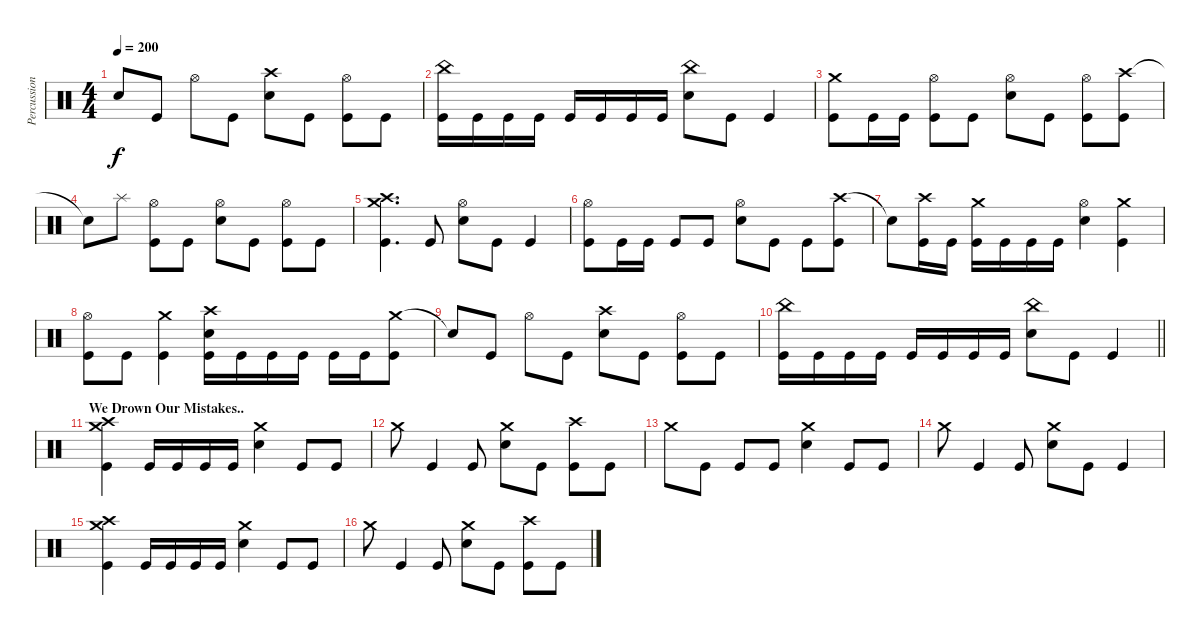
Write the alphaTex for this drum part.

\track ("Percussion" "Percussion") {instrument percussion}
\staff {score}
\articulation defaults
\ts (4 4)
\tempo 200
\clef neutral
\ks c "Snare (hit)"{t}.8{dy f} "Kick (hit)".8 "Hi-Hat (open)".8 "Kick (hit)".8
("Crash high (hit)" "Snare (hit) 2").8 "Kick (hit)".8 ("Hi-Hat (open)" "Kick (hit)").8 "Kick (hit)".8 |
("China (hit)" "Kick (hit)").16 "Kick (hit)".16 "Kick (hit)".16 "Kick (hit)".16 "Kick (hit)".16 "Kick (hit)".16 "Kick (hit)".16 "Kick (hit)".16 ("China (hit)" "Snare (hit) 2").8 "Kick (hit)".8 "Kick (hit)".4 |
("Crash medium (hit)" "Kick (hit)").8 "Kick (hit)".16 "Kick (hit)".16 ("Hi-Hat (open)" "Kick (hit)").8 "Kick (hit)".8 ("Hi-Hat (open)" "Snare (hit) 2").8 "Kick (hit)".8 ("Hi-Hat (open)" "Kick (hit)").8 ("Crash high (hit)" "Kick (hit)").8 |
"Snare (hit)"{t}.8 "Splash (hit)".8 ("Hi-Hat (open)" "Kick (hit)").8 "Kick (hit)".8 ("Hi-Hat (open)" "Snare (hit) 2").8 "Kick (hit)".8 ("Hi-Hat (open)" "Kick (hit)").8 "Kick (hit)".8 |
("Crash medium (hit)" "Crash high (hit)" "Kick (hit)").4{d} "Kick (hit)".8 ("Hi-Hat (open)" "Snare (hit) 2").8 "Kick (hit)".8 "Kick (hit)".4 |
("Hi-Hat (open)" "Kick (hit)").8 "Kick (hit)".16 "Kick (hit)".16 "Kick (hit)".8 "Kick (hit)".8 ("Hi-Hat (open)" "Snare (hit) 2").8 "Kick (hit)".8 "Kick (hit)".8 ("Crash high (hit)" "Kick (hit)").8 |
"Snare (hit)"{t}.8 ("Crash high (hit)" "Kick (hit)").16 "Kick (hit)".16 ("Crash medium (hit)" "Kick (hit)").16 "Kick (hit)".16 "Kick (hit)".16 "Kick (hit)".16 ("Hi-Hat (open)" "Snare (hit) 2").4 ("Crash medium (hit)" "Kick (hit)").4 |
("Hi-Hat (open)" "Kick (hit)").8 "Kick (hit)".8 ("Crash medium (hit)" "Kick (hit)").4 ("Crash high (hit)" "Snare (hit) 2" "Kick (hit)").16 "Kick (hit)".16 "Kick (hit)".16 "Kick (hit)".16 "Kick (hit)".16 "Kick (hit)".16 ("Crash medium (hit)" "Kick (hit)").8 |
"Snare (hit)"{t}.8 "Kick (hit)".8 "Hi-Hat (open)".8 "Kick (hit)".8 ("Crash high (hit)" "Snare (hit) 2").8 "Kick (hit)".8 ("Hi-Hat (open)" "Kick (hit)").8 "Kick (hit)".8 |
\barLineRight lightlight
("China (hit)" "Kick (hit)").16 "Kick (hit)".16 "Kick (hit)".16 "Kick (hit)".16 "Kick (hit)".16 "Kick (hit)".16 "Kick (hit)".16 "Kick (hit)".16 ("China (hit)" "Snare (hit) 2").8 "Kick (hit)".8 "Kick (hit)".4 |
\section ("" "We Drown Our Mistakes..")
("Crash medium (hit)" "Crash high (hit)" "Kick (hit)").4 "Kick (hit)".16 "Kick (hit)".16 "Kick (hit)".16 "Kick (hit)".16 ("Crash medium (hit)" "Snare (hit) 2").4 "Kick (hit)".8 "Kick (hit)".8 |
"Crash medium (hit)".8 "Kick (hit)".4 "Kick (hit)".8 ("Crash medium (hit)" "Snare (hit) 2").8 "Kick (hit)".8 ("Crash high (hit)" "Kick (hit)").8 "Kick (hit)".8 |
"Crash medium (hit)".8 "Kick (hit)".8 "Kick (hit)".8 "Kick (hit)".8 ("Crash medium (hit)" "Snare (hit) 2").4 "Kick (hit)".8 "Kick (hit)".8 |
"Crash medium (hit)".8 "Kick (hit)".4 "Kick (hit)".8 ("Crash medium (hit)" "Snare (hit) 2").8 "Kick (hit)".8 "Kick (hit)".4 |
("Crash medium (hit)" "Crash high (hit)" "Kick (hit)").4 "Kick (hit)".16 "Kick (hit)".16 "Kick (hit)".16 "Kick (hit)".16 ("Crash medium (hit)" "Snare (hit) 2").4 "Kick (hit)".8 "Kick (hit)".8 |
"Crash medium (hit)".8 "Kick (hit)".4 "Kick (hit)".8 ("Crash medium (hit)" "Snare (hit) 2").8 "Kick (hit)".8 ("Crash high (hit)" "Kick (hit)").8 "Kick (hit)".8
